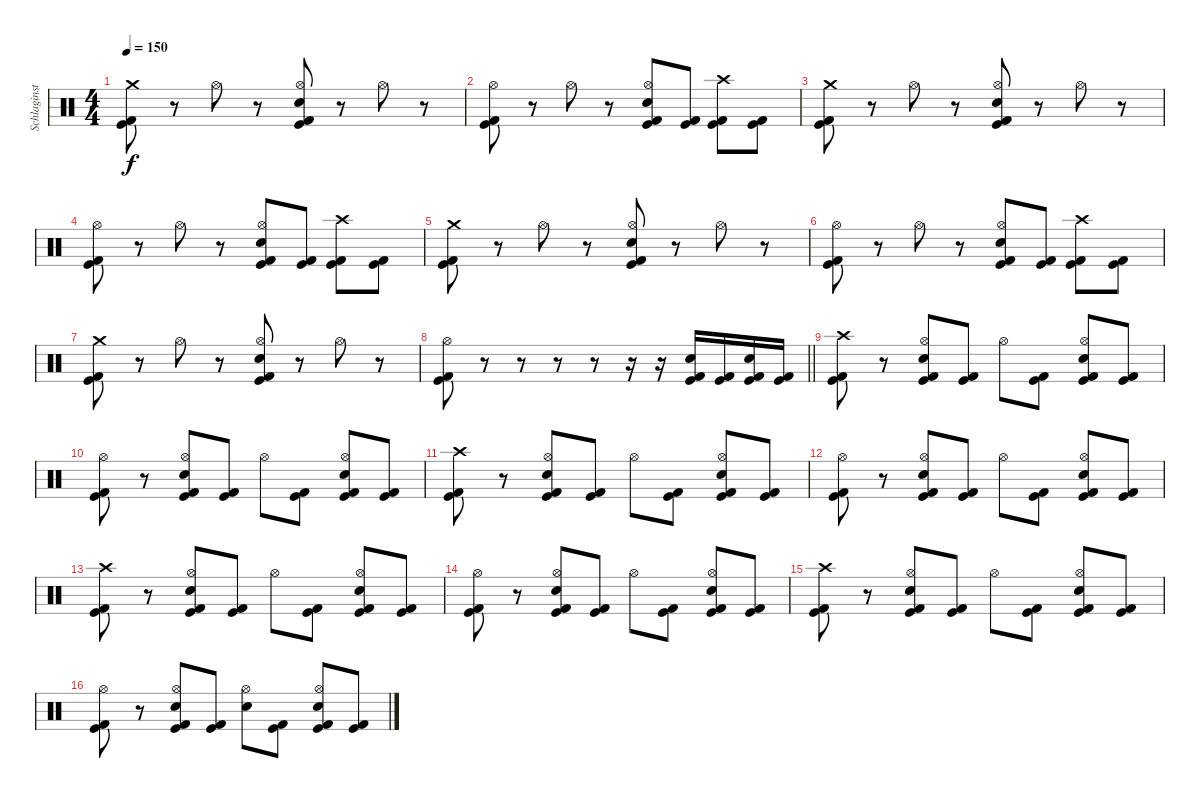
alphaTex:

\track ("Schlaginstrumente - Auswahl" "Schlaginst") {instrument percussion}
\staff {score}
\articulation defaults
\ts (4 4)
\tempo 150
\clef neutral
\ks c
("Crash medium (hit)" "Kick (hit)" "Kick (hit) 2").8{dy f} r.8 "Hi-Hat (open)".8 r.8 ("Electric Snare (hit)" "Hi-Hat (open)" "Kick (hit)" "Kick (hit) 2").8 r.8 "Hi-Hat (open)".8 r.8 |
("Hi-Hat (open)" "Kick (hit)" "Kick (hit) 2").8 r.8 "Hi-Hat (open)".8 r.8 ("Electric Snare (hit)" "Hi-Hat (open)" "Kick (hit)" "Kick (hit) 2").8 ("Kick (hit)" "Kick (hit) 2").8 ("Crash high (hit)" "Kick (hit)" "Kick (hit) 2").8 ("Kick (hit)" "Kick (hit) 2").8 |
("Crash medium (hit)" "Kick (hit)" "Kick (hit) 2").8 r.8 "Hi-Hat (open)".8 r.8 ("Electric Snare (hit)" "Hi-Hat (open)" "Kick (hit)" "Kick (hit) 2").8 r.8 "Hi-Hat (open)".8 r.8 |
("Hi-Hat (open)" "Kick (hit)" "Kick (hit) 2").8 r.8 "Hi-Hat (open)".8 r.8 ("Electric Snare (hit)" "Hi-Hat (open)" "Kick (hit)" "Kick (hit) 2").8 ("Kick (hit)" "Kick (hit) 2").8 ("Crash high (hit)" "Kick (hit)" "Kick (hit) 2").8 ("Kick (hit)" "Kick (hit) 2").8 |
("Crash medium (hit)" "Kick (hit)" "Kick (hit) 2").8 r.8 "Hi-Hat (open)".8 r.8 ("Electric Snare (hit)" "Hi-Hat (open)" "Kick (hit)" "Kick (hit) 2").8 r.8 "Hi-Hat (open)".8 r.8 |
("Hi-Hat (open)" "Kick (hit)" "Kick (hit) 2").8 r.8 "Hi-Hat (open)".8 r.8 ("Electric Snare (hit)" "Hi-Hat (open)" "Kick (hit)" "Kick (hit) 2").8 ("Kick (hit)" "Kick (hit) 2").8 ("Crash high (hit)" "Kick (hit)" "Kick (hit) 2").8 ("Kick (hit)" "Kick (hit) 2").8 |
("Crash medium (hit)" "Kick (hit)" "Kick (hit) 2").8 r.8 "Hi-Hat (open)".8 r.8 ("Electric Snare (hit)" "Hi-Hat (open)" "Kick (hit)" "Kick (hit) 2").8 r.8 "Hi-Hat (open)".8 r.8 |
\barLineRight lightlight
("Hi-Hat (open)" "Kick (hit)" "Kick (hit) 2").8 r.8 r.8 r.8 r.8 r.16 r.16 ("Electric Snare (hit)" "Kick (hit)" "Kick (hit) 2").16 ("Kick (hit)" "Kick (hit) 2").16 ("Electric Snare (hit)" "Kick (hit)" "Kick (hit) 2").16 ("Kick (hit)" "Kick (hit) 2").16 |
("Crash high (hit)" "Kick (hit)" "Kick (hit) 2").8 r.8 ("Hi-Hat (open)" "Electric Snare (hit)" "Kick (hit)" "Kick (hit) 2").8 ("Kick (hit)" "Kick (hit) 2").8 "Hi-Hat (open)".8 ("Kick (hit)" "Kick (hit) 2").8 ("Hi-Hat (open)" "Electric Snare (hit)" "Kick (hit)" "Kick (hit) 2").8 ("Kick (hit)" "Kick (hit) 2").8 |
("Hi-Hat (open)" "Kick (hit)" "Kick (hit) 2").8 r.8 ("Hi-Hat (open)" "Electric Snare (hit)" "Kick (hit)" "Kick (hit) 2").8 ("Kick (hit)" "Kick (hit) 2").8 "Hi-Hat (open)".8 ("Kick (hit)" "Kick (hit) 2").8 ("Hi-Hat (open)" "Electric Snare (hit)" "Kick (hit)" "Kick (hit) 2").8 ("Kick (hit)" "Kick (hit) 2").8 |
("Crash high (hit)" "Kick (hit)" "Kick (hit) 2").8 r.8 ("Hi-Hat (open)" "Electric Snare (hit)" "Kick (hit)" "Kick (hit) 2").8 ("Kick (hit)" "Kick (hit) 2").8 "Hi-Hat (open)".8 ("Kick (hit)" "Kick (hit) 2").8 ("Hi-Hat (open)" "Electric Snare (hit)" "Kick (hit)" "Kick (hit) 2").8 ("Kick (hit)" "Kick (hit) 2").8 |
("Hi-Hat (open)" "Kick (hit)" "Kick (hit) 2").8 r.8 ("Hi-Hat (open)" "Electric Snare (hit)" "Kick (hit)" "Kick (hit) 2").8 ("Kick (hit)" "Kick (hit) 2").8 "Hi-Hat (open)".8 ("Kick (hit)" "Kick (hit) 2").8 ("Hi-Hat (open)" "Electric Snare (hit)" "Kick (hit)" "Kick (hit) 2").8 ("Kick (hit)" "Kick (hit) 2").8 |
("Crash high (hit)" "Kick (hit)" "Kick (hit) 2").8 r.8 ("Hi-Hat (open)" "Electric Snare (hit)" "Kick (hit)" "Kick (hit) 2").8 ("Kick (hit)" "Kick (hit) 2").8 "Hi-Hat (open)".8 ("Kick (hit)" "Kick (hit) 2").8 ("Hi-Hat (open)" "Electric Snare (hit)" "Kick (hit)" "Kick (hit) 2").8 ("Kick (hit)" "Kick (hit) 2").8 |
("Hi-Hat (open)" "Kick (hit)" "Kick (hit) 2").8 r.8 ("Hi-Hat (open)" "Electric Snare (hit)" "Kick (hit)" "Kick (hit) 2").8 ("Kick (hit)" "Kick (hit) 2").8 "Hi-Hat (open)".8 ("Kick (hit)" "Kick (hit) 2").8 ("Hi-Hat (open)" "Electric Snare (hit)" "Kick (hit)" "Kick (hit) 2").8 ("Kick (hit)" "Kick (hit) 2").8 |
("Crash high (hit)" "Kick (hit)" "Kick (hit) 2").8 r.8 ("Hi-Hat (open)" "Electric Snare (hit)" "Kick (hit)" "Kick (hit) 2").8 ("Kick (hit)" "Kick (hit) 2").8 "Hi-Hat (open)".8 ("Kick (hit)" "Kick (hit) 2").8 ("Hi-Hat (open)" "Electric Snare (hit)" "Kick (hit)" "Kick (hit) 2").8 ("Kick (hit)" "Kick (hit) 2").8 |
("Hi-Hat (open)" "Kick (hit)" "Kick (hit) 2").8 r.8 ("Hi-Hat (open)" "Electric Snare (hit)" "Kick (hit)" "Kick (hit) 2").8 ("Kick (hit)" "Kick (hit) 2").8 ("Hi-Hat (open)" "Electric Snare (hit)").8 ("Kick (hit)" "Kick (hit) 2").8 ("Hi-Hat (open)" "Electric Snare (hit)" "Kick (hit)" "Kick (hit) 2").8 ("Kick (hit)" "Kick (hit) 2").8
